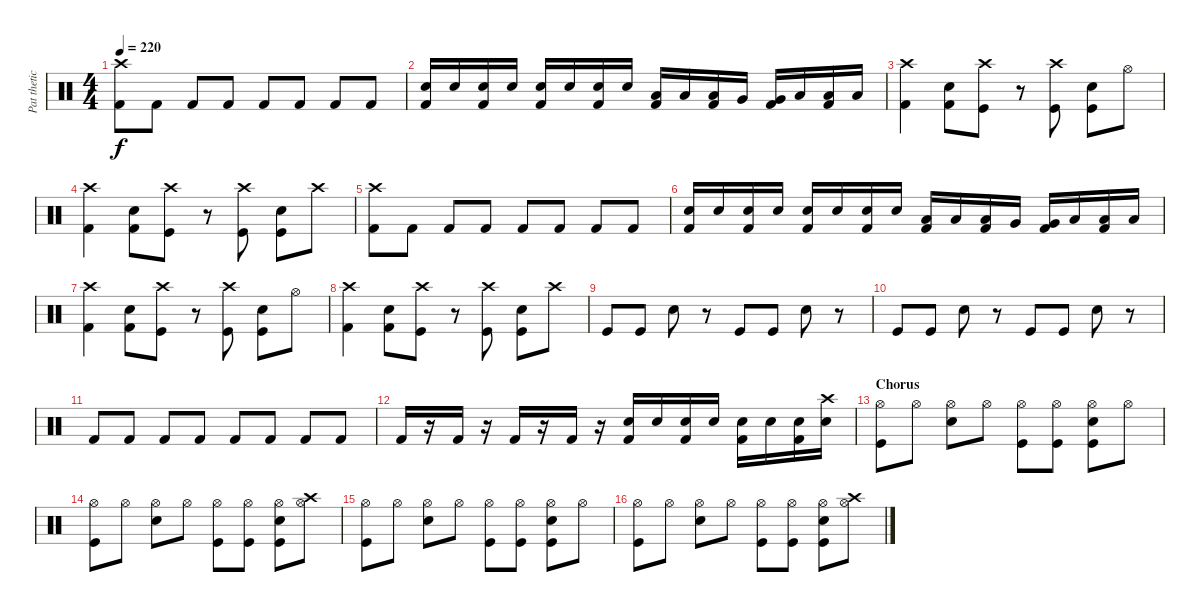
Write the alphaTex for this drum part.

\track ("Pat thetic " "Pat thetic") {instrument percussion}
\staff {score}
\articulation defaults
\ts (4 4)
\tempo 220
\clef neutral
\ks c
("Kick (hit) 2" "Crash high (hit)").8{dy f} "Kick (hit) 2".8 "Kick (hit) 2".8 "Kick (hit) 2".8 "Kick (hit) 2".8 "Kick (hit) 2".8 "Kick (hit) 2".8 "Kick (hit) 2".8 |
("Kick (hit) 2" "Electric Snare (hit)").16 "Electric Snare (hit)".16 ("Kick (hit) 2" "Electric Snare (hit)").16 "Electric Snare (hit)".16 ("Kick (hit) 2" "Electric Snare (hit)").16 "Electric Snare (hit)".16 ("Kick (hit) 2" "Electric Snare (hit)").16 "Electric Snare (hit)".16 ("Kick (hit) 2" "Low Tom (hit)").16 "Low Tom (hit)".16 ("Kick (hit) 2" "Low Tom (hit)").16 "Very Low Tom (hit)".16 ("Kick (hit) 2" "Very Low Tom (hit)").16 "Low Floor Tom (hit)".16 ("Kick (hit) 2" "Low Floor Tom (hit)").16 "Low Floor Tom (hit)".16 |
("Kick (hit) 2" "Crash high (hit)").4 ("Kick (hit) 2" "Electric Snare (hit)").8 ("Kick (hit)" "Crash high (hit)").8 r.8 ("Kick (hit)" "Crash high (hit)").8 ("Kick (hit)" "Electric Snare (hit)").8 "Hi-Hat (open)".8 |
("Kick (hit) 2" "Crash high (hit)").4 ("Kick (hit) 2" "Electric Snare (hit)").8 ("Kick (hit)" "Crash high (hit)").8 r.8 ("Kick (hit)" "Crash high (hit)").8 ("Kick (hit)" "Electric Snare (hit)").8 "Crash high (hit)".8 |
("Kick (hit) 2" "Crash high (hit)").8 "Kick (hit) 2".8 "Kick (hit) 2".8 "Kick (hit) 2".8 "Kick (hit) 2".8 "Kick (hit) 2".8 "Kick (hit) 2".8 "Kick (hit) 2".8 |
("Kick (hit) 2" "Electric Snare (hit)").16 "Electric Snare (hit)".16 ("Kick (hit) 2" "Electric Snare (hit)").16 "Electric Snare (hit)".16 ("Kick (hit) 2" "Electric Snare (hit)").16 "Electric Snare (hit)".16 ("Kick (hit) 2" "Electric Snare (hit)").16 "Electric Snare (hit)".16 ("Kick (hit) 2" "Low Tom (hit)").16 "Low Tom (hit)".16 ("Kick (hit) 2" "Low Tom (hit)").16 "Very Low Tom (hit)".16 ("Kick (hit) 2" "Very Low Tom (hit)").16 "Low Floor Tom (hit)".16 ("Kick (hit) 2" "Low Floor Tom (hit)").16 "Low Floor Tom (hit)".16 |
("Kick (hit) 2" "Crash high (hit)").4 ("Kick (hit) 2" "Electric Snare (hit)").8 ("Kick (hit)" "Crash high (hit)").8 r.8 ("Kick (hit)" "Crash high (hit)").8 ("Kick (hit)" "Electric Snare (hit)").8 "Hi-Hat (open)".8 |
("Kick (hit) 2" "Crash high (hit)").4 ("Kick (hit) 2" "Electric Snare (hit)").8 ("Kick (hit)" "Crash high (hit)").8 r.8 ("Kick (hit)" "Crash high (hit)").8 ("Kick (hit)" "Electric Snare (hit)").8 "Crash high (hit)".8 |
"Kick (hit)".8 "Kick (hit)".8 "Electric Snare (hit)".8 r.8 "Kick (hit)".8 "Kick (hit)".8 "Electric Snare (hit)".8 r.8 |
"Kick (hit)".8 "Kick (hit)".8 "Electric Snare (hit)".8 r.8 "Kick (hit)".8 "Kick (hit)".8 "Electric Snare (hit)".8 r.8 |
"Kick (hit) 2".8 "Kick (hit) 2".8 "Kick (hit) 2".8 "Kick (hit) 2".8 "Kick (hit) 2".8 "Kick (hit) 2".8 "Kick (hit) 2".8 "Kick (hit) 2".8 |
"Kick (hit) 2".16 r.16 "Kick (hit) 2".16 r.16 "Kick (hit) 2".16 r.16 "Kick (hit) 2".16 r.16 ("Kick (hit) 2" "Electric Snare (hit)").16 "Electric Snare (hit)".16 ("Kick (hit) 2" "Electric Snare (hit)").16 "Electric Snare (hit)".16 ("Kick (hit) 2" "Electric Snare (hit)").16 "Electric Snare (hit)".16 ("Kick (hit) 2" "Electric Snare (hit)").16 ("Electric Snare (hit)" "Crash high (hit)").16 |
\section ("" "Chorus")
("Kick (hit)" "Hi-Hat (open)").8 "Hi-Hat (open)".8 ("Electric Snare (hit)" "Hi-Hat (open)").8 "Hi-Hat (open)".8 ("Kick (hit)" "Hi-Hat (open)").8 ("Kick (hit)" "Hi-Hat (open)").8 ("Kick (hit)" "Electric Snare (hit)" "Hi-Hat (open)").8 "Hi-Hat (open)".8 |
("Kick (hit)" "Hi-Hat (open)").8 "Hi-Hat (open)".8 ("Electric Snare (hit)" "Hi-Hat (open)").8 "Hi-Hat (open)".8 ("Kick (hit)" "Hi-Hat (open)").8 ("Kick (hit)" "Hi-Hat (open)").8 ("Kick (hit)" "Electric Snare (hit)" "Hi-Hat (open)").8 ("Crash high (hit)" "Hi-Hat (open)").8 |
("Kick (hit)" "Hi-Hat (open)").8 "Hi-Hat (open)".8 ("Electric Snare (hit)" "Hi-Hat (open)").8 "Hi-Hat (open)".8 ("Kick (hit)" "Hi-Hat (open)").8 ("Kick (hit)" "Hi-Hat (open)").8 ("Kick (hit)" "Electric Snare (hit)" "Hi-Hat (open)").8 "Hi-Hat (open)".8 |
("Kick (hit)" "Hi-Hat (open)").8 "Hi-Hat (open)".8 ("Electric Snare (hit)" "Hi-Hat (open)").8 "Hi-Hat (open)".8 ("Kick (hit)" "Hi-Hat (open)").8 ("Kick (hit)" "Hi-Hat (open)").8 ("Kick (hit)" "Electric Snare (hit)" "Hi-Hat (open)").8 ("Crash high (hit)" "Hi-Hat (open)").8
